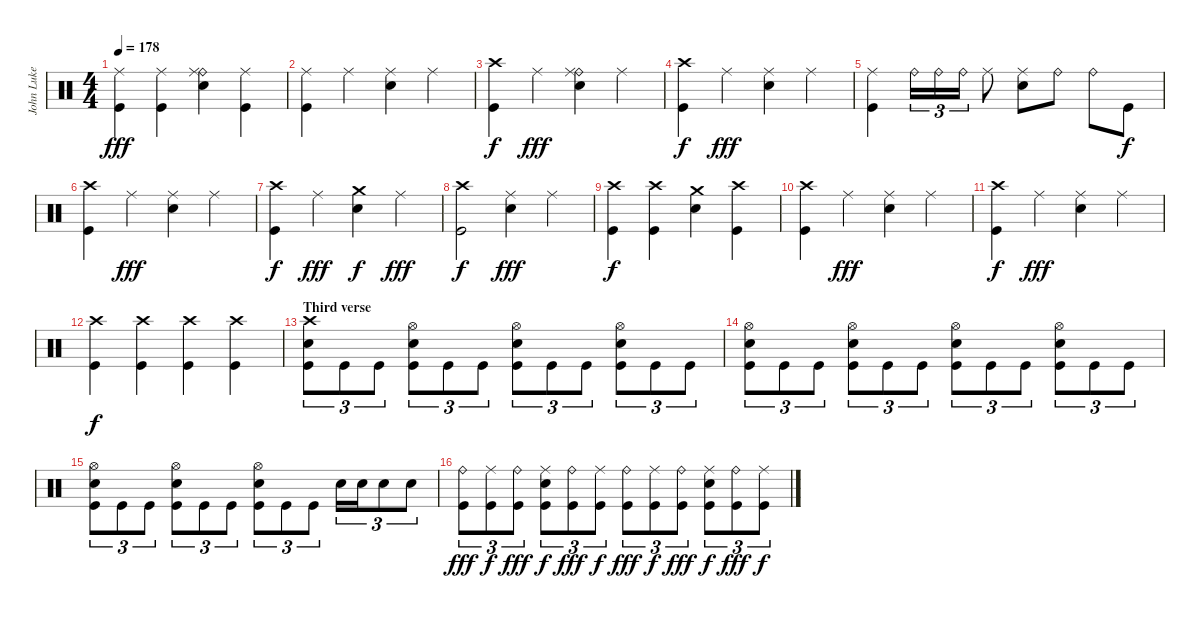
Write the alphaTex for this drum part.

\track ("John Luke (Drums)" "John Luke ") {instrument percussion}
\staff {score}
\articulation defaults
\ts (4 4)
\tempo 178
\clef neutral
\ks c
("Ride (middle)" "Kick (hit)").4{dy fff} ("Ride (middle)" "Kick (hit)").4 ("Ride (bell)" "Ride (middle)" "Electric Snare (hit)").4 ("Ride (middle)" "Kick (hit)").4 |
("Ride (middle)" "Kick (hit)").4 "Ride (middle)".4 ("Ride (middle)" "Electric Snare (hit)").4 "Ride (middle)".4 |
("Crash high (hit)" "Kick (hit)").4{dy f} "Ride (middle)".4{dy fff} ("Ride (bell)" "Ride (middle)" "Electric Snare (hit)").4 "Ride (middle)".4 |
("Crash high (hit)" "Kick (hit)").4{dy f} "Ride (middle)".4{dy fff} ("Ride (middle)" "Electric Snare (hit)").4 "Ride (middle)".4 |
("Ride (middle)" "Kick (hit)").4 "Ride (bell)".16{tu (3 2)} "Ride (bell)".16{tu (3 2)} "Ride (bell)".16{tu (3 2)} "Ride (middle)".8 ("Ride (middle)" "Electric Snare (hit)").8 "Ride (bell)".8 "Ride (bell)".8 "Kick (hit)".8{dy f} |
("Crash high (hit)" "Kick (hit)").4 "Ride (middle)".4{dy fff} ("Ride (middle)" "Electric Snare (hit)").4 "Ride (middle)".4 |
("Crash high (hit)" "Kick (hit)").4{dy f} "Ride (middle)".4{dy fff} ("Crash medium (hit)" "Electric Snare (hit)").4{dy f} "Ride (middle)".4{dy fff} |
("Crash high (hit)" "Kick (hit)").2{dy f} ("Ride (middle)" "Electric Snare (hit)").4{dy fff} "Ride (middle)".4 |
("Crash high (hit)" "Kick (hit)").4{dy f} ("Crash high (hit)" "Kick (hit)").4 ("Crash medium (hit)" "Electric Snare (hit)").4 ("Crash high (hit)" "Kick (hit)").4 |
("Crash high (hit)" "Kick (hit)").4 "Ride (middle)".4{dy fff} ("Ride (middle)" "Electric Snare (hit)").4 "Ride (middle)".4 |
("Crash high (hit)" "Kick (hit)").4{dy f} "Ride (middle)".4{dy fff} ("Ride (middle)" "Electric Snare (hit)").4 "Ride (middle)".4 |
("Crash high (hit)" "Kick (hit)").4{dy f} ("Crash high (hit)" "Kick (hit)").4 ("Crash high (hit)" "Kick (hit)").4 ("Crash high (hit)" "Kick (hit)").4 |
\section ("" "Third verse")
("Crash high (hit)" "Electric Snare (hit)" "Kick (hit)").8{tu (3 2)} "Kick (hit)".8{tu (3 2)} "Kick (hit)".8{tu (3 2)} ("Hi-Hat (open)" "Electric Snare (hit)" "Kick (hit)").8{tu (3 2)} "Kick (hit)".8{tu (3 2)} "Kick (hit)".8{tu (3 2)} ("Hi-Hat (open)" "Electric Snare (hit)" "Kick (hit)").8{tu (3 2)} "Kick (hit)".8{tu (3 2)} "Kick (hit)".8{tu (3 2)} ("Hi-Hat (open)" "Electric Snare (hit)" "Kick (hit)").8{tu (3 2)} "Kick (hit)".8{tu (3 2)} "Kick (hit)".8{tu (3 2)} |
("Hi-Hat (open)" "Electric Snare (hit)" "Kick (hit)").8{tu (3 2)} "Kick (hit)".8{tu (3 2)} "Kick (hit)".8{tu (3 2)} ("Hi-Hat (open)" "Electric Snare (hit)" "Kick (hit)").8{tu (3 2)} "Kick (hit)".8{tu (3 2)} "Kick (hit)".8{tu (3 2)} ("Hi-Hat (open)" "Electric Snare (hit)" "Kick (hit)").8{tu (3 2)} "Kick (hit)".8{tu (3 2)} "Kick (hit)".8{tu (3 2)} ("Hi-Hat (open)" "Electric Snare (hit)" "Kick (hit)").8{tu (3 2)} "Kick (hit)".8{tu (3 2)} "Kick (hit)".8{tu (3 2)} |
("Hi-Hat (open)" "Electric Snare (hit)" "Kick (hit)").8{tu (3 2)} "Kick (hit)".8{tu (3 2)} "Kick (hit)".8{tu (3 2)} ("Hi-Hat (open)" "Electric Snare (hit)" "Kick (hit)").8{tu (3 2)} "Kick (hit)".8{tu (3 2)} "Kick (hit)".8{tu (3 2)} ("Hi-Hat (open)" "Electric Snare (hit)" "Kick (hit)").8{tu (3 2)} "Kick (hit)".8{tu (3 2)} "Kick (hit)".8{tu (3 2)} "Electric Snare (hit)".16{tu (3 2)} "Electric Snare (hit)".16{tu (3 2)} "Electric Snare (hit)".8{tu (3 2)} "Electric Snare (hit)".8{tu (3 2)} |
("Ride (bell)" "Kick (hit)").8{tu (3 2) dy fff} ("Ride (middle)" "Kick (hit)").8{tu (3 2) dy f} ("Ride (bell)" "Kick (hit)").8{tu (3 2) dy fff} ("Ride (middle)" "Electric Snare (hit)" "Kick (hit)").8{tu (3 2) dy f} ("Ride (bell)" "Kick (hit)").8{tu (3 2) dy fff} ("Ride (middle)" "Kick (hit)").8{tu (3 2) dy f} ("Ride (bell)" "Kick (hit)").8{tu (3 2) dy fff} ("Ride (middle)" "Kick (hit)").8{tu (3 2) dy f} ("Ride (bell)" "Kick (hit)").8{tu (3 2) dy fff} ("Ride (middle)" "Electric Snare (hit)" "Kick (hit)").8{tu (3 2) dy f} ("Ride (bell)" "Kick (hit)").8{tu (3 2) dy fff} ("Ride (middle)" "Kick (hit)").8{tu (3 2) dy f}
